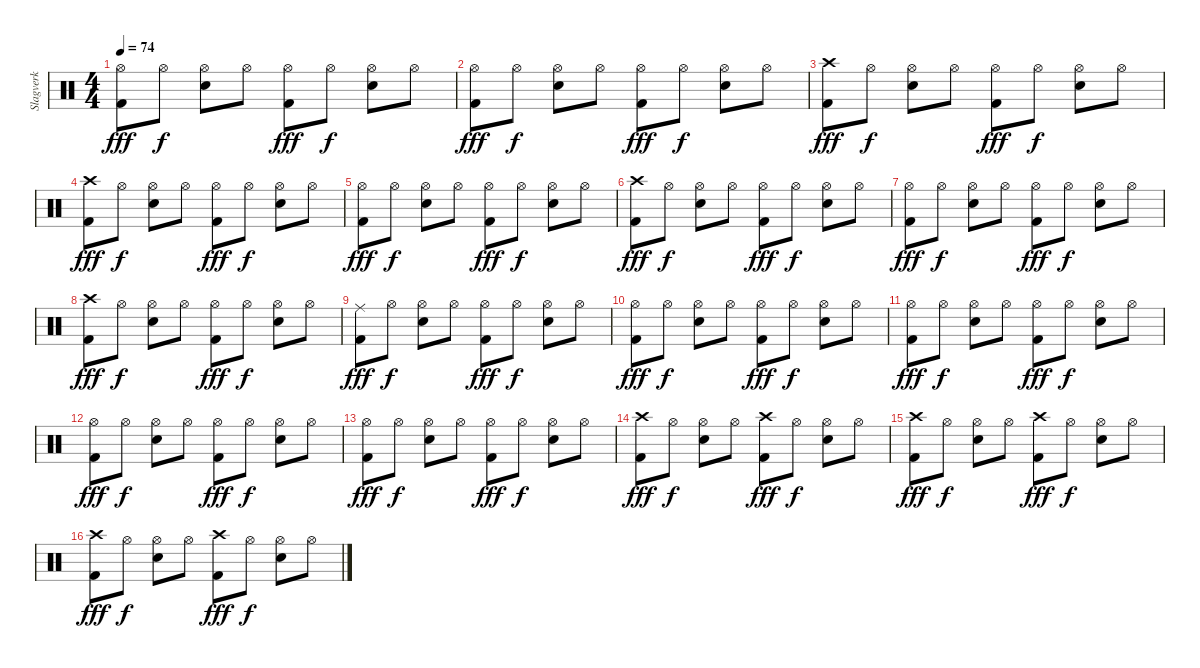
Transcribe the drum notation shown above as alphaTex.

\track ("Slagverk" "Slagverk") {instrument percussion}
\staff {score}
\articulation defaults
\ts (4 4)
\tempo 74
\clef neutral
\ks c
("Hi-Hat (open)" "Kick (hit) 2").8{dy fff} "Hi-Hat (open)".8{dy f} ("Hi-Hat (open)" "Snare (hit) 2").8 "Hi-Hat (open)".8 ("Hi-Hat (open)" "Kick (hit) 2").8{dy fff} "Hi-Hat (open)".8{dy f} ("Hi-Hat (open)" "Snare (hit) 2").8 "Hi-Hat (open)".8 |
("Hi-Hat (open)" "Kick (hit) 2").8{dy fff} "Hi-Hat (open)".8{dy f} ("Hi-Hat (open)" "Snare (hit) 2").8 "Hi-Hat (open)".8 ("Hi-Hat (open)" "Kick (hit) 2").8{dy fff} "Hi-Hat (open)".8{dy f} ("Hi-Hat (open)" "Snare (hit) 2").8 "Hi-Hat (open)".8 |
("Crash high (hit)" "Kick (hit) 2").8{dy fff} "Hi-Hat (open)".8{dy f} ("Hi-Hat (open)" "Snare (hit) 2").8 "Hi-Hat (open)".8 ("Hi-Hat (open)" "Kick (hit) 2").8{dy fff} "Hi-Hat (open)".8{dy f} ("Hi-Hat (open)" "Snare (hit) 2").8 "Hi-Hat (open)".8 |
("Crash high (hit)" "Kick (hit) 2").8{dy fff} "Hi-Hat (open)".8{dy f} ("Hi-Hat (open)" "Snare (hit) 2").8 "Hi-Hat (open)".8 ("Hi-Hat (open)" "Kick (hit) 2").8{dy fff} "Hi-Hat (open)".8{dy f} ("Hi-Hat (open)" "Snare (hit) 2").8 "Hi-Hat (open)".8 |
("Hi-Hat (open)" "Kick (hit) 2").8{dy fff} "Hi-Hat (open)".8{dy f} ("Hi-Hat (open)" "Snare (hit) 2").8 "Hi-Hat (open)".8 ("Hi-Hat (open)" "Kick (hit) 2").8{dy fff} "Hi-Hat (open)".8{dy f} ("Hi-Hat (open)" "Snare (hit) 2").8 "Hi-Hat (open)".8 |
("Crash high (hit)" "Kick (hit) 2").8{dy fff} "Hi-Hat (open)".8{dy f} ("Hi-Hat (open)" "Snare (hit) 2").8 "Hi-Hat (open)".8 ("Hi-Hat (open)" "Kick (hit) 2").8{dy fff} "Hi-Hat (open)".8{dy f} ("Hi-Hat (open)" "Snare (hit) 2").8 "Hi-Hat (open)".8 |
("Hi-Hat (open)" "Kick (hit) 2").8{dy fff} "Hi-Hat (open)".8{dy f} ("Hi-Hat (open)" "Snare (hit) 2").8 "Hi-Hat (open)".8 ("Hi-Hat (open)" "Kick (hit) 2").8{dy fff} "Hi-Hat (open)".8{dy f} ("Hi-Hat (open)" "Snare (hit) 2").8 "Hi-Hat (open)".8 |
("Crash high (hit)" "Kick (hit) 2").8{dy fff} "Hi-Hat (open)".8{dy f} ("Hi-Hat (open)" "Snare (hit) 2").8 "Hi-Hat (open)".8 ("Hi-Hat (open)" "Kick (hit) 2").8{dy fff} "Hi-Hat (open)".8{dy f} ("Hi-Hat (open)" "Snare (hit) 2").8 "Hi-Hat (open)".8 |
("Ride (middle)" "Kick (hit) 2").8{dy fff} "Hi-Hat (open)".8{dy f} ("Hi-Hat (open)" "Snare (hit) 2").8 "Hi-Hat (open)".8 ("Hi-Hat (open)" "Kick (hit) 2").8{dy fff} "Hi-Hat (open)".8{dy f} ("Hi-Hat (open)" "Snare (hit) 2").8 "Hi-Hat (open)".8 |
("Hi-Hat (open)" "Kick (hit) 2").8{dy fff} "Hi-Hat (open)".8{dy f} ("Hi-Hat (open)" "Snare (hit) 2").8 "Hi-Hat (open)".8 ("Hi-Hat (open)" "Kick (hit) 2").8{dy fff} "Hi-Hat (open)".8{dy f} ("Hi-Hat (open)" "Snare (hit) 2").8 "Hi-Hat (open)".8 |
("Hi-Hat (open)" "Kick (hit) 2").8{dy fff} "Hi-Hat (open)".8{dy f} ("Hi-Hat (open)" "Snare (hit) 2").8 "Hi-Hat (open)".8 ("Hi-Hat (open)" "Kick (hit) 2").8{dy fff} "Hi-Hat (open)".8{dy f} ("Hi-Hat (open)" "Snare (hit) 2").8 "Hi-Hat (open)".8 |
("Hi-Hat (open)" "Kick (hit) 2").8{dy fff} "Hi-Hat (open)".8{dy f} ("Hi-Hat (open)" "Snare (hit) 2").8 "Hi-Hat (open)".8 ("Hi-Hat (open)" "Kick (hit) 2").8{dy fff} "Hi-Hat (open)".8{dy f} ("Hi-Hat (open)" "Snare (hit) 2").8 "Hi-Hat (open)".8 |
("Hi-Hat (open)" "Kick (hit) 2").8{dy fff} "Hi-Hat (open)".8{dy f} ("Hi-Hat (open)" "Snare (hit) 2").8 "Hi-Hat (open)".8 ("Hi-Hat (open)" "Kick (hit) 2").8{dy fff} "Hi-Hat (open)".8{dy f} ("Hi-Hat (open)" "Snare (hit) 2").8 "Hi-Hat (open)".8 |
("Crash high (hit)" "Kick (hit) 2").8{dy fff} "Hi-Hat (open)".8{dy f} ("Hi-Hat (open)" "Snare (hit) 2").8 "Hi-Hat (open)".8 ("Crash high (hit)" "Kick (hit) 2").8{dy fff} "Hi-Hat (open)".8{dy f} ("Hi-Hat (open)" "Snare (hit) 2").8 "Hi-Hat (open)".8 |
("Crash high (hit)" "Kick (hit) 2").8{dy fff} "Hi-Hat (open)".8{dy f} ("Hi-Hat (open)" "Snare (hit) 2").8 "Hi-Hat (open)".8 ("Crash high (hit)" "Kick (hit) 2").8{dy fff} "Hi-Hat (open)".8{dy f} ("Hi-Hat (open)" "Snare (hit) 2").8 "Hi-Hat (open)".8 |
("Crash high (hit)" "Kick (hit) 2").8{dy fff} "Hi-Hat (open)".8{dy f} ("Hi-Hat (open)" "Snare (hit) 2").8 "Hi-Hat (open)".8 ("Crash high (hit)" "Kick (hit) 2").8{dy fff} "Hi-Hat (open)".8{dy f} ("Hi-Hat (open)" "Snare (hit) 2").8 "Hi-Hat (open)".8
